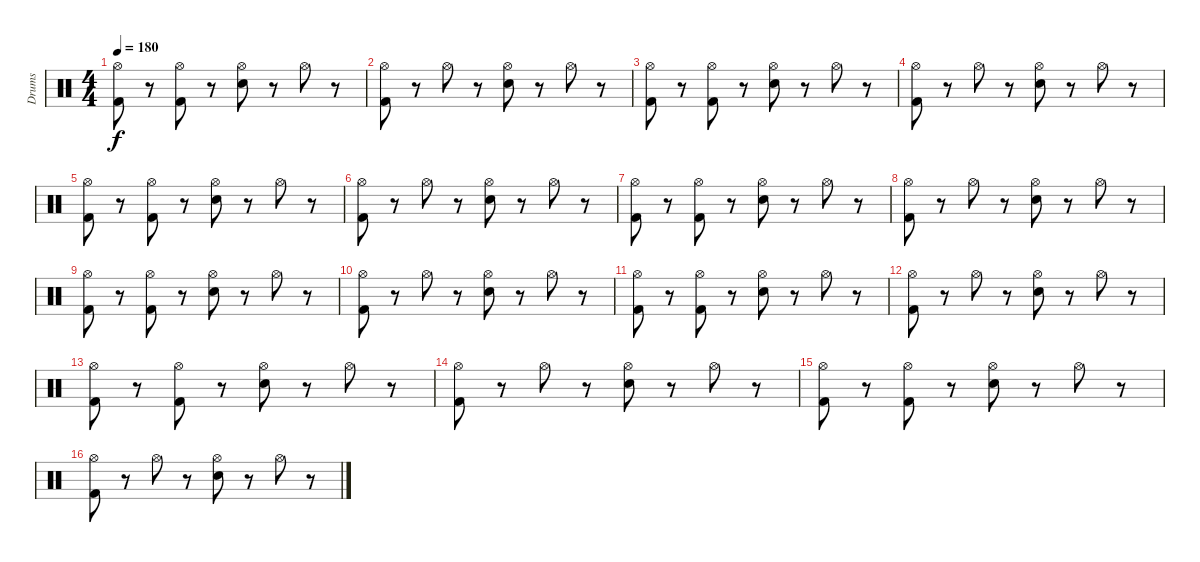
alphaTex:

\track ("Drums" "Drums") {instrument percussion}
\staff {score}
\articulation defaults
\ts (4 4)
\tempo 180
\clef neutral
\ks c
("Hi-Hat (open)" "Kick (hit) 2").8{dy f} r.8 ("Hi-Hat (open)" "Kick (hit) 2").8 r.8 ("Hi-Hat (open)" "Electric Snare (hit)").8 r.8 "Hi-Hat (open)".8 r.8 |
("Hi-Hat (open)" "Kick (hit) 2").8 r.8 "Hi-Hat (open)".8 r.8 ("Hi-Hat (open)" "Electric Snare (hit)").8 r.8 "Hi-Hat (open)".8 r.8 |
("Hi-Hat (open)" "Kick (hit) 2").8 r.8 ("Hi-Hat (open)" "Kick (hit) 2").8 r.8 ("Hi-Hat (open)" "Electric Snare (hit)").8 r.8 "Hi-Hat (open)".8 r.8 |
("Hi-Hat (open)" "Kick (hit) 2").8 r.8 "Hi-Hat (open)".8 r.8 ("Hi-Hat (open)" "Electric Snare (hit)").8 r.8 "Hi-Hat (open)".8 r.8 |
("Hi-Hat (open)" "Kick (hit) 2").8 r.8 ("Hi-Hat (open)" "Kick (hit) 2").8 r.8 ("Hi-Hat (open)" "Electric Snare (hit)").8 r.8 "Hi-Hat (open)".8 r.8 |
("Hi-Hat (open)" "Kick (hit) 2").8 r.8 "Hi-Hat (open)".8 r.8 ("Hi-Hat (open)" "Electric Snare (hit)").8 r.8 "Hi-Hat (open)".8 r.8 |
("Hi-Hat (open)" "Kick (hit) 2").8 r.8 ("Hi-Hat (open)" "Kick (hit) 2").8 r.8 ("Hi-Hat (open)" "Electric Snare (hit)").8 r.8 "Hi-Hat (open)".8 r.8 |
("Hi-Hat (open)" "Kick (hit) 2").8 r.8 "Hi-Hat (open)".8 r.8 ("Hi-Hat (open)" "Electric Snare (hit)").8 r.8 "Hi-Hat (open)".8 r.8 |
("Hi-Hat (open)" "Kick (hit) 2").8 r.8 ("Hi-Hat (open)" "Kick (hit) 2").8 r.8 ("Hi-Hat (open)" "Electric Snare (hit)").8 r.8 "Hi-Hat (open)".8 r.8 |
("Hi-Hat (open)" "Kick (hit) 2").8 r.8 "Hi-Hat (open)".8 r.8 ("Hi-Hat (open)" "Electric Snare (hit)").8 r.8 "Hi-Hat (open)".8 r.8 |
("Hi-Hat (open)" "Kick (hit) 2").8 r.8 ("Hi-Hat (open)" "Kick (hit) 2").8 r.8 ("Hi-Hat (open)" "Electric Snare (hit)").8 r.8 "Hi-Hat (open)".8 r.8 |
("Hi-Hat (open)" "Kick (hit) 2").8 r.8 "Hi-Hat (open)".8 r.8 ("Hi-Hat (open)" "Electric Snare (hit)").8 r.8 "Hi-Hat (open)".8 r.8 |
("Hi-Hat (open)" "Kick (hit) 2").8 r.8 ("Hi-Hat (open)" "Kick (hit) 2").8 r.8 ("Hi-Hat (open)" "Electric Snare (hit)").8 r.8 "Hi-Hat (open)".8 r.8 |
("Hi-Hat (open)" "Kick (hit) 2").8 r.8 "Hi-Hat (open)".8 r.8 ("Hi-Hat (open)" "Electric Snare (hit)").8 r.8 "Hi-Hat (open)".8 r.8 |
("Hi-Hat (open)" "Kick (hit) 2").8 r.8 ("Hi-Hat (open)" "Kick (hit) 2").8 r.8 ("Hi-Hat (open)" "Electric Snare (hit)").8 r.8 "Hi-Hat (open)".8 r.8 |
("Hi-Hat (open)" "Kick (hit) 2").8 r.8 "Hi-Hat (open)".8 r.8 ("Hi-Hat (open)" "Electric Snare (hit)").8 r.8 "Hi-Hat (open)".8 r.8
